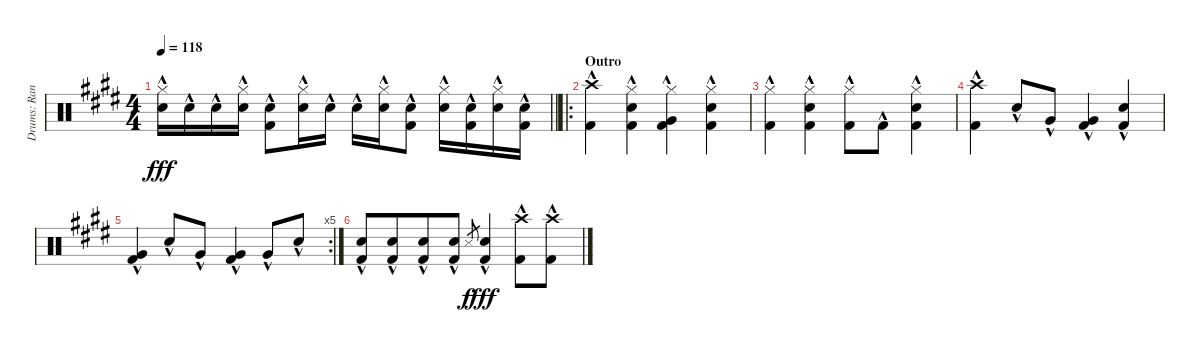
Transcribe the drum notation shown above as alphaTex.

\track ("Drums: Randy" "Drums: Ran") {instrument percussion}
\staff {score}
\articulation defaults
\ts (4 4)
\tempo 118
\clef neutral
\barLineRight lightlight
\ks e
("Hi-Hat (closed)"{hac} "Snare (hit) 2"{hac}).16{dy fff} "Snare (hit) 2"{hac}.16 "Snare (hit) 2"{hac}.16 ("Hi-Hat (closed)"{hac} "Snare (hit) 2"{hac}).16 ("Snare (hit) 2"{hac} "Kick (hit) 2"{hac}).8 ("Hi-Hat (closed)"{hac} "Snare (hit) 2"{hac}).16 "Snare (hit) 2"{hac}.16 "Snare (hit) 2"{hac}.16 ("Hi-Hat (closed)"{hac} "Snare (hit) 2"{hac}).16 ("Snare (hit) 2"{hac} "Kick (hit) 2"{hac}).8 ("Hi-Hat (closed)"{hac} "Snare (hit) 2"{hac}).16 ("Snare (hit) 2"{hac} "Kick (hit) 2"{hac}).16 ("Hi-Hat (closed)"{hac} "Snare (hit) 2"{hac}).16 ("Snare (hit) 2"{hac} "Kick (hit) 2"{hac}).16 |
\ro
\section ("" "Outro")
("Crash high (hit)"{hac} "Kick (hit) 2"{hac}).4 ("Hi-Hat (closed)"{hac} "Snare (hit) 2"{hac} "Kick (hit) 2"{hac}).4 ("Hi-Hat (closed)"{hac} "Very Low Tom (hit)"{hac} "Kick (hit) 2"{hac}).4 ("Hi-Hat (closed)"{hac} "Snare (hit) 2"{hac} "Kick (hit) 2"{hac}).4 |
("Hi-Hat (closed)"{hac} "Kick (hit) 2"{hac}).4 ("Hi-Hat (closed)"{hac} "Snare (hit) 2"{hac} "Kick (hit) 2"{hac}).4 ("Hi-Hat (closed)"{hac} "Kick (hit) 2"{hac}).8 "Kick (hit) 2"{hac}.8 ("Hi-Hat (closed)"{hac} "Snare (hit) 2"{hac} "Kick (hit) 2"{hac}).4 |
("Crash high (hit)"{hac} "Kick (hit) 2"{hac}).4 "Snare (hit) 2"{hac}.8 "Very Low Tom (hit)"{hac}.8 ("Very Low Tom (hit)"{hac} "Kick (hit) 2"{hac}).4 ("Snare (hit) 2"{hac} "Kick (hit) 2"{hac}).4 |
\rc 5
("Very Low Tom (hit)"{hac} "Kick (hit) 2"{hac}).4 "Snare (hit) 2"{hac}.8 "Very Low Tom (hit)"{hac}.8 ("Very Low Tom (hit)"{hac} "Kick (hit) 2"{hac}).4 "Very Low Tom (hit)"{hac}.8 "Snare (hit) 2"{hac}.8 |
("Snare (hit) 2"{hac} "Kick (hit) 2"{hac}).8 ("Snare (hit) 2"{hac} "Kick (hit) 2"{hac}).8{beam merge} ("Snare (hit) 2"{hac} "Kick (hit) 2"{hac}).8 ("Snare (hit) 2"{hac} "Kick (hit) 2"{hac}).8 "Snare (side stick) 3".8{gr dy f} ("Snare (hit) 2"{hac} "Kick (hit) 2"{hac}).4{dy fff} ("Crash high (hit)"{hac} "Kick (hit) 2"{hac}).8 ("Crash high (hit)"{hac} "Kick (hit) 2"{hac}).8
